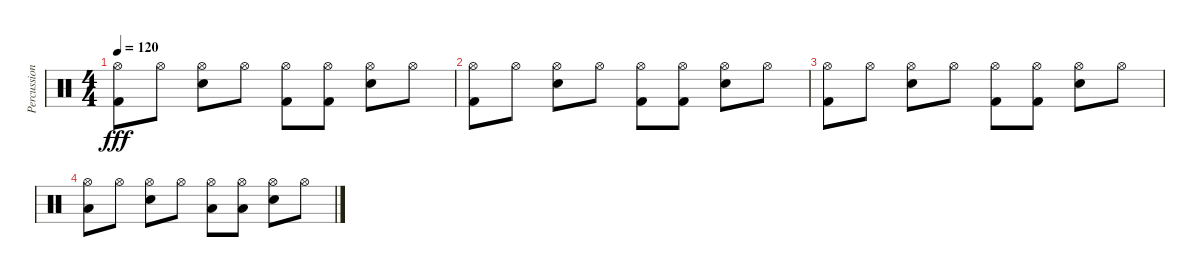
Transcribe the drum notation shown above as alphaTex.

\track ("Percussions" "Percussion") {instrument percussion}
\staff {score}
\articulation defaults
\ts (4 4)
\tempo 120
\clef neutral
\ks c
("Hi-Hat (open)" "Kick (hit) 2").8{dy fff} "Hi-Hat (open)".8 ("Hi-Hat (open)" "Electric Snare (hit)").8 "Hi-Hat (open)".8 ("Hi-Hat (open)" "Kick (hit) 2").8 ("Hi-Hat (open)" "Kick (hit) 2").8 ("Hi-Hat (open)" "Electric Snare (hit)").8 "Hi-Hat (open)".8 |
("Hi-Hat (open)" "Kick (hit) 2").8 "Hi-Hat (open)".8 ("Hi-Hat (open)" "Electric Snare (hit)").8 "Hi-Hat (open)".8 ("Hi-Hat (open)" "Kick (hit) 2").8 ("Hi-Hat (open)" "Kick (hit) 2").8 ("Hi-Hat (open)" "Electric Snare (hit)").8 "Hi-Hat (open)".8 |
("Hi-Hat (open)" "Kick (hit) 2").8 "Hi-Hat (open)".8 ("Hi-Hat (open)" "Electric Snare (hit)").8 "Hi-Hat (open)".8 ("Hi-Hat (open)" "Kick (hit) 2").8 ("Hi-Hat (open)" "Kick (hit) 2").8 ("Hi-Hat (open)" "Electric Snare (hit)").8 "Hi-Hat (open)".8 |
("Hi-Hat (open)" "Low Tom (hit)").8 "Hi-Hat (open)".8 ("Hi-Hat (open)" "Electric Snare (hit)").8 "Hi-Hat (open)".8 ("Hi-Hat (open)" "Low Tom (hit)").8 ("Hi-Hat (open)" "Low Tom (hit)").8 ("Hi-Hat (open)" "Electric Snare (hit)").8 "Hi-Hat (open)".8
